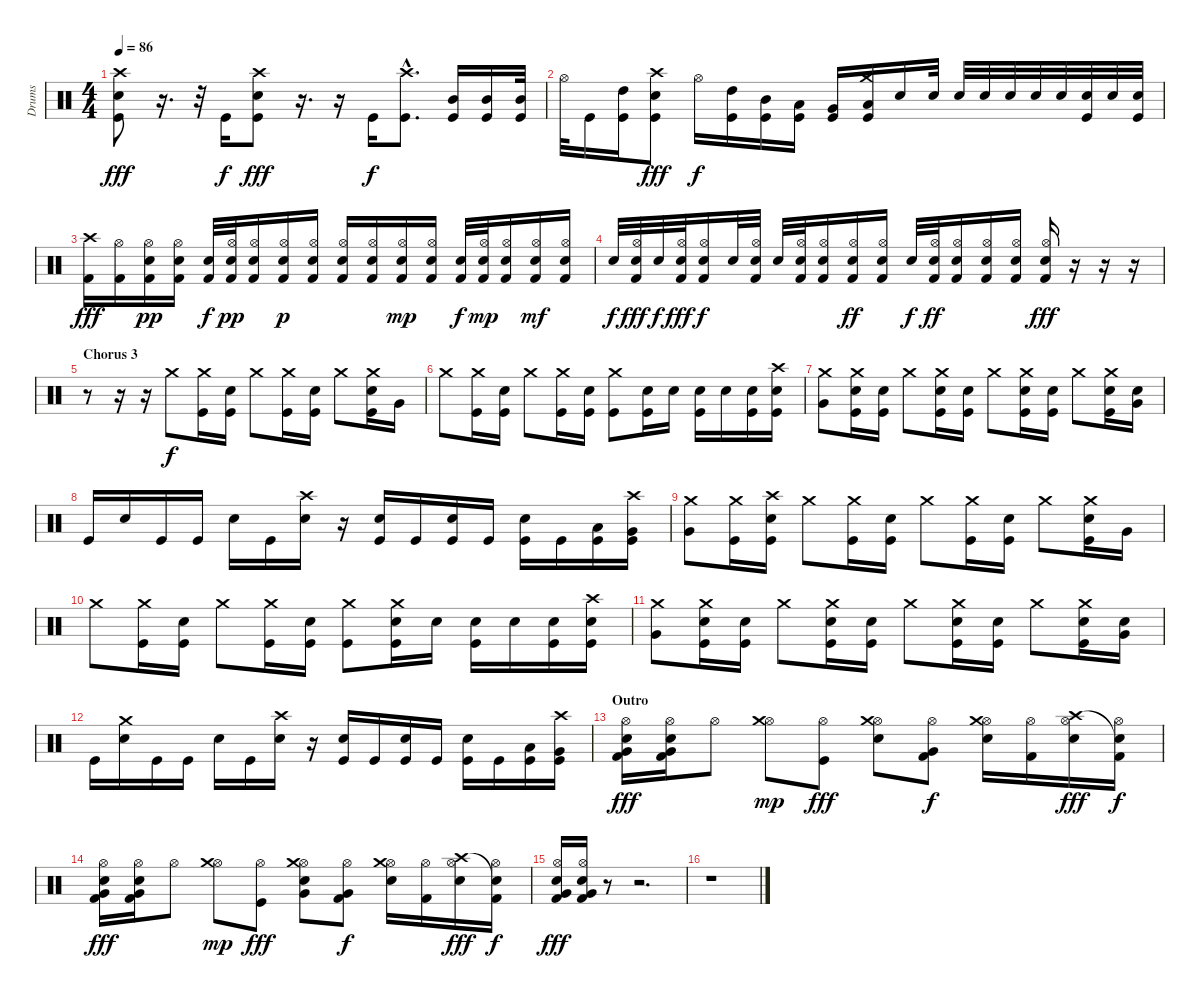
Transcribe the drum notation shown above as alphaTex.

\track ("Drums" "Drums") {instrument percussion}
\staff {score}
\articulation defaults
\ts (4 4)
\tempo 86
\clef neutral
\ks c
("Crash high (hit)" "Snare (hit) 2" "Kick (hit)").8{dy fff} r.16{d} r.32 "Kick (hit)".16{dy f} ("Crash high (hit)" "Snare (hit) 2" "Kick (hit)").8{dy fff} r.16{d} r.16 "Kick (hit)".16{dy f} ("Crash high (hit)"{hac} "Kick (hit)"{hac}).8{d} ("Mid Tom (hit)" "Kick (hit)").16 ("Mid Tom (hit)" "Kick (hit)").16 ("Mid Tom (hit)" "Kick (hit)").32 |
"Hi-Hat (open)".32 "Kick (hit)".16 ("High Tom (hit)" "Kick (hit)").16 ("Crash high (hit)" "Snare (hit) 2" "Kick (hit)").8{dy fff} "Hi-Hat (open)".16{dy f} ("High Tom (hit)" "Kick (hit)").16 ("Mid Tom (hit)" "Kick (hit)").16 ("Low Tom (hit)" "Kick (hit)").16 ("Very Low Tom (hit)" "Kick (hit)").16 ("Crash medium (hit)" "Low Floor Tom (hit)" "Kick (hit)").16 "Snare (hit) 2".16 "Snare (hit) 2".32 "Snare (hit) 2".32 "Snare (hit) 2".32 "Snare (hit) 2".32 "Snare (hit) 2".32 "Snare (hit) 2".32 ("Snare (hit) 2" "Kick (hit)").32 "Snare (hit) 2".32 ("Snare (hit) 2" "Kick (hit)").32 |
("Crash high (hit)" "Kick (hit) 2").16{dy fff} ("Hi-Hat (open)" "Kick (hit) 2").16 ("Hi-Hat (open)" "Snare (hit) 2" "Kick (hit) 2").16{dy pp} ("Hi-Hat (open)" "Snare (hit) 2" "Kick (hit) 2").16 ("Snare (hit) 2" "Kick (hit) 2").32{dy f} ("Hi-Hat (open)" "Snare (hit) 2" "Kick (hit) 2").32{dy pp} ("Hi-Hat (open)" "Snare (hit) 2" "Kick (hit) 2").16 ("Hi-Hat (open)" "Snare (hit) 2" "Kick (hit) 2").16{dy p} ("Hi-Hat (open)" "Snare (hit) 2" "Kick (hit) 2").16 ("Hi-Hat (open)" "Snare (hit) 2" "Kick (hit) 2").16 ("Hi-Hat (open)" "Snare (hit) 2" "Kick (hit) 2").16 ("Hi-Hat (open)" "Snare (hit) 2" "Kick (hit) 2").16{dy mp} ("Hi-Hat (open)" "Snare (hit) 2" "Kick (hit) 2").16 ("Snare (hit) 2" "Kick (hit) 2").32{dy f} ("Hi-Hat (open)" "Snare (hit) 2" "Kick (hit) 2").32{dy mp} ("Hi-Hat (open)" "Snare (hit) 2" "Kick (hit) 2").16 ("Hi-Hat (open)" "Snare (hit) 2" "Kick (hit) 2").16{dy mf} ("Hi-Hat (open)" "Snare (hit) 2" "Kick (hit) 2").16 |
"Snare (hit) 2".32{dy f} ("Hi-Hat (open)" "Snare (hit) 2" "Kick (hit) 2").32{dy fff} "Snare (hit) 2".32{dy f} ("Hi-Hat (open)" "Snare (hit) 2" "Kick (hit) 2").32{dy fff} ("Hi-Hat (open)" "Snare (hit) 2" "Kick (hit) 2").16{dy f} "Snare (hit) 2".32 ("Hi-Hat (open)" "Snare (hit) 2" "Kick (hit) 2").32 "Snare (hit) 2".32 ("Hi-Hat (open)" "Snare (hit) 2" "Kick (hit) 2").32 ("Hi-Hat (open)" "Snare (hit) 2" "Kick (hit) 2").16 ("Hi-Hat (open)" "Snare (hit) 2" "Kick (hit) 2").16{dy ff} ("Hi-Hat (open)" "Snare (hit) 2" "Kick (hit) 2").16 "Snare (hit) 2".32{dy f} ("Hi-Hat (open)" "Snare (hit) 2" "Kick (hit) 2").32{dy ff} ("Hi-Hat (open)" "Snare (hit) 2" "Kick (hit) 2").16 ("Hi-Hat (open)" "Snare (hit) 2" "Kick (hit) 2").16 ("Hi-Hat (open)" "Snare (hit) 2" "Kick (hit) 2").16 ("Hi-Hat (open)" "Snare (hit) 2" "Kick (hit) 2").16{dy fff} r.16 r.16 r.16 |
\section ("" "Chorus 3")
r.8 r.16 r.16 "Crash medium (hit)".8{dy f} ("Crash medium (hit)" "Kick (hit)").16 ("Snare (hit) 2" "Kick (hit)").16 "Crash medium (hit)".8 ("Crash medium (hit)" "Kick (hit)").16 ("Snare (hit) 2" "Kick (hit)").16 "Crash medium (hit)".8 ("Crash medium (hit)" "Snare (hit) 2" "Kick (hit)").16 "Very Low Tom (hit)".16 |
"Crash medium (hit)".8 ("Crash medium (hit)" "Kick (hit)").16 ("Snare (hit) 2" "Kick (hit)").16 "Crash medium (hit)".8 ("Crash medium (hit)" "Kick (hit)").16 ("Snare (hit) 2" "Kick (hit)").16 ("Crash medium (hit)" "Kick (hit)").8 ("Snare (hit) 2" "Kick (hit)").16 "Snare (hit) 2".16 ("Snare (hit) 2" "Kick (hit)").16 "Snare (hit) 2".16 ("Snare (hit) 2" "Kick (hit)").16 ("Crash high (hit)" "Snare (hit) 2" "Kick (hit)").16 |
("Very Low Tom (hit)" "Crash medium (hit)").8 ("Crash medium (hit)" "Snare (hit) 2" "Kick (hit)").16 ("Snare (hit) 2" "Kick (hit)").16 "Crash medium (hit)".8 ("Crash medium (hit)" "Snare (hit) 2" "Kick (hit)").16 ("Snare (hit) 2" "Kick (hit)").16 "Crash medium (hit)".8 ("Crash medium (hit)" "Snare (hit) 2" "Kick (hit)").16 ("Snare (hit) 2" "Kick (hit)").16 "Crash medium (hit)".8 ("Crash medium (hit)" "Snare (hit) 2" "Kick (hit)").16 ("Very Low Tom (hit)" "Snare (hit) 2").16 |
"Kick (hit)".16 "Snare (hit) 2".16 "Kick (hit)".16 "Kick (hit)".16 "Snare (hit) 2".16 "Kick (hit)".16 ("Snare (hit) 2" "Crash high (hit)").16 r.16 ("Snare (hit) 2" "Kick (hit)").16 "Kick (hit)".16 ("Snare (hit) 2" "Kick (hit)").16 "Kick (hit)".16 ("Snare (hit) 2" "Kick (hit)").16 "Kick (hit)".16 ("Low Tom (hit)" "Kick (hit)").16 ("Crash high (hit)" "Very Low Tom (hit)" "Kick (hit)").16 |
("Very Low Tom (hit)" "Crash medium (hit)").8 ("Crash medium (hit)" "Kick (hit)").16 ("Crash high (hit)" "Snare (hit) 2" "Kick (hit)").16 "Crash medium (hit)".8 ("Crash medium (hit)" "Kick (hit)").16 ("Snare (hit) 2" "Kick (hit)").16 "Crash medium (hit)".8 ("Crash medium (hit)" "Kick (hit)").16 ("Snare (hit) 2" "Kick (hit)").16 "Crash medium (hit)".8 ("Crash medium (hit)" "Snare (hit) 2" "Kick (hit)").16 "Very Low Tom (hit)".16 |
"Crash medium (hit)".8 ("Crash medium (hit)" "Kick (hit)").16 ("Snare (hit) 2" "Kick (hit)").16 "Crash medium (hit)".8 ("Crash medium (hit)" "Kick (hit)").16 ("Snare (hit) 2" "Kick (hit)").16 ("Crash medium (hit)" "Kick (hit)").8 ("Crash medium (hit)" "Snare (hit) 2" "Kick (hit)").16 "Snare (hit) 2".16 ("Snare (hit) 2" "Kick (hit)").16 "Snare (hit) 2".16 ("Snare (hit) 2" "Kick (hit)").16 ("Crash high (hit)" "Snare (hit) 2" "Kick (hit)").16 |
("Very Low Tom (hit)" "Crash medium (hit)").8 ("Crash medium (hit)" "Snare (hit) 2" "Kick (hit)").16 ("Snare (hit) 2" "Kick (hit)").16 "Crash medium (hit)".8 ("Crash medium (hit)" "Snare (hit) 2" "Kick (hit)").16 ("Snare (hit) 2" "Kick (hit)").16 "Crash medium (hit)".8 ("Crash medium (hit)" "Snare (hit) 2" "Kick (hit)").16 ("Snare (hit) 2" "Kick (hit)").16 "Crash medium (hit)".8 ("Crash medium (hit)" "Snare (hit) 2" "Kick (hit)").16 ("Very Low Tom (hit)" "Snare (hit) 2").16 |
"Kick (hit)".16 ("Crash medium (hit)" "Snare (hit) 2").16 "Kick (hit)".16 "Kick (hit)".16 "Snare (hit) 2".16 "Kick (hit)".16 ("Snare (hit) 2" "Crash high (hit)").16 r.16 ("Snare (hit) 2" "Kick (hit)").16 "Kick (hit)".16 ("Snare (hit) 2" "Kick (hit)").16 "Kick (hit)".16 ("Snare (hit) 2" "Kick (hit)").16 "Kick (hit)".16 ("Low Tom (hit)" "Kick (hit)").16 ("Crash high (hit)" "Very Low Tom (hit)" "Kick (hit)").16 |
\section ("" "Outro")
("Hi-Hat (open)" "Very Low Tom (hit)" "Snare (hit) 2" "Kick (hit) 2").16{dy fff} ("Hi-Hat (open)" "Very Low Tom (hit)" "Snare (hit) 2" "Kick (hit) 2").16 "Hi-Hat (open)".8 ("Hi-Hat (open)" "Crash medium (hit)").8{dy mp} ("Hi-Hat (open)" "Kick (hit)").8{dy fff} ("Hi-Hat (open)" "Crash medium (hit)" "Snare (hit) 2").8 ("Hi-Hat (open)" "Very Low Tom (hit)" "Kick (hit) 2").8{dy f} ("Hi-Hat (open)" "Crash medium (hit)" "Snare (hit) 2").16 ("Hi-Hat (open)" "Kick (hit) 2").16 ("Hi-Hat (open)" "Crash high (hit)" "Snare (hit) 2").16{dy fff} ("Hi-Hat (open)" "Snare (hit)"{t} "Kick (hit) 2").16{dy f} |
("Hi-Hat (open)" "Very Low Tom (hit)" "Snare (hit) 2" "Kick (hit) 2").16{dy fff} ("Hi-Hat (open)" "Very Low Tom (hit)" "Snare (hit) 2" "Kick (hit) 2").16 "Hi-Hat (open)".8 ("Hi-Hat (open)" "Crash medium (hit)").8{dy mp} ("Hi-Hat (open)" "Kick (hit)").8{dy fff} ("Hi-Hat (open)" "Crash medium (hit)" "Snare (hit) 2" "Very Low Tom (hit)").8 ("Hi-Hat (open)" "Very Low Tom (hit)" "Kick (hit) 2").8{dy f} ("Hi-Hat (open)" "Crash medium (hit)" "Snare (hit) 2").16 ("Hi-Hat (open)" "Kick (hit) 2").16 ("Hi-Hat (open)" "Crash high (hit)" "Snare (hit) 2").16{dy fff} ("Hi-Hat (open)" "Snare (hit)"{t} "Kick (hit) 2").16{dy f} |
("Hi-Hat (open)" "Very Low Tom (hit)" "Snare (hit) 2" "Kick (hit) 2").16{dy fff} ("Hi-Hat (open)" "Very Low Tom (hit)" "Snare (hit) 2" "Kick (hit) 2").16 r.8 r.2{d} |
r.1
